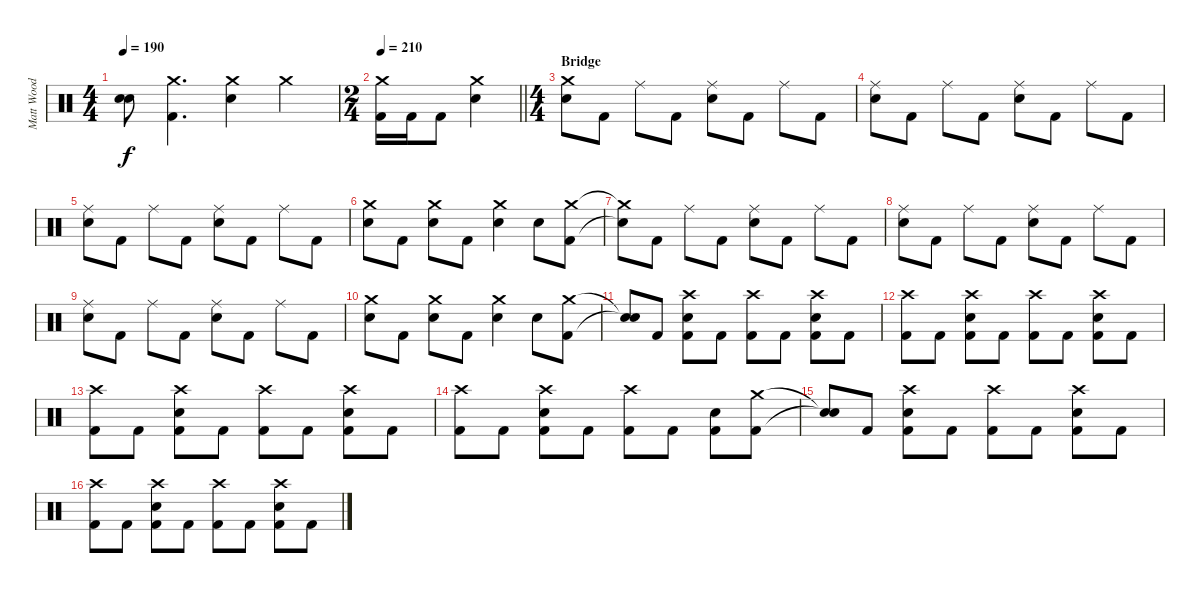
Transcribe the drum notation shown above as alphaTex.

\track ("Matt Wood" "Matt Wood") {instrument percussion}
\staff {score}
\articulation defaults
\ts (4 4)
\tempo 190
\clef neutral
\ks c
("Snare (hit)"{t} "Snare (hit)"{t}).8{dy f} ("Crash medium (hit)" "Kick (hit) 2").4{d} ("Crash medium (hit)" "Snare (hit) 2").4 "Crash medium (hit)".4 |
\ts (2 4)
\tempo 210
\barLineRight lightlight
("Crash medium (hit)" "Kick (hit) 2").16 "Kick (hit) 2".16 "Kick (hit) 2".8 ("Crash medium (hit)" "Snare (hit) 2").4 |
\ts (4 4)
\section ("" "Bridge")
("Crash medium (hit)" "Snare (hit) 2").8 "Kick (hit) 2".8 "Ride (middle)".8 "Kick (hit) 2".8 ("Ride (middle)" "Snare (hit) 2").8 "Kick (hit) 2".8 "Ride (middle)".8 "Kick (hit) 2".8 |
("Ride (middle)" "Snare (hit) 2").8 "Kick (hit) 2".8 "Ride (middle)".8 "Kick (hit) 2".8 ("Ride (middle)" "Snare (hit) 2").8 "Kick (hit) 2".8 "Ride (middle)".8 "Kick (hit) 2".8 |
("Ride (middle)" "Snare (hit) 2").8 "Kick (hit) 2".8 "Ride (middle)".8 "Kick (hit) 2".8 ("Ride (middle)" "Snare (hit) 2").8 "Kick (hit) 2".8 "Ride (middle)".8 "Kick (hit) 2".8 |
("Crash medium (hit)" "Snare (hit) 2").8 "Kick (hit) 2".8 ("Crash medium (hit)" "Snare (hit) 2").8 "Kick (hit) 2".8 ("Crash medium (hit)" "Snare (hit) 2").4 "Snare (hit) 2".8 ("Crash medium (hit)" "Kick (hit) 2").8 |
("Crash medium (hit)"{t} "Snare (hit)"{t}).8 "Kick (hit) 2".8 "Ride (middle)".8 "Kick (hit) 2".8 ("Ride (middle)" "Snare (hit) 2").8 "Kick (hit) 2".8 "Ride (middle)".8 "Kick (hit) 2".8 |
("Ride (middle)" "Snare (hit) 2").8 "Kick (hit) 2".8 "Ride (middle)".8 "Kick (hit) 2".8 ("Ride (middle)" "Snare (hit) 2").8 "Kick (hit) 2".8 "Ride (middle)".8 "Kick (hit) 2".8 |
("Ride (middle)" "Snare (hit) 2").8 "Kick (hit) 2".8 "Ride (middle)".8 "Kick (hit) 2".8 ("Ride (middle)" "Snare (hit) 2").8 "Kick (hit) 2".8 "Ride (middle)".8 "Kick (hit) 2".8 |
("Crash medium (hit)" "Snare (hit) 2").8 "Kick (hit) 2".8 ("Crash medium (hit)" "Snare (hit) 2").8 "Kick (hit) 2".8 ("Crash medium (hit)" "Snare (hit) 2").4 "Snare (hit) 2".8 ("Crash medium (hit)" "Kick (hit) 2").8 |
("Snare (hit)"{t} "Snare (hit)"{t}).8 "Kick (hit) 2".8 ("Crash high (hit)" "Snare (hit) 2" "Kick (hit) 2").8 "Kick (hit) 2".8 ("Crash high (hit)" "Kick (hit) 2").8 "Kick (hit) 2".8 ("Crash high (hit)" "Snare (hit) 2" "Kick (hit) 2").8 "Kick (hit) 2".8 |
("Crash high (hit)" "Kick (hit) 2").8 "Kick (hit) 2".8 ("Crash high (hit)" "Snare (hit) 2" "Kick (hit) 2").8 "Kick (hit) 2".8 ("Crash high (hit)" "Kick (hit) 2").8 "Kick (hit) 2".8 ("Crash high (hit)" "Snare (hit) 2" "Kick (hit) 2").8 "Kick (hit) 2".8 |
("Crash high (hit)" "Kick (hit) 2").8 "Kick (hit) 2".8 ("Crash high (hit)" "Snare (hit) 2" "Kick (hit) 2").8 "Kick (hit) 2".8 ("Crash high (hit)" "Kick (hit) 2").8 "Kick (hit) 2".8 ("Crash high (hit)" "Snare (hit) 2" "Kick (hit) 2").8 "Kick (hit) 2".8 |
("Crash high (hit)" "Kick (hit) 2").8 "Kick (hit) 2".8 ("Crash high (hit)" "Snare (hit) 2" "Kick (hit) 2").8 "Kick (hit) 2".8 ("Crash high (hit)" "Kick (hit) 2").8 "Kick (hit) 2".8 ("Snare (hit) 2" "Kick (hit) 2").8 ("Crash medium (hit)" "Kick (hit) 2").8 |
("Snare (hit)"{t} "Snare (hit)"{t}).8 "Kick (hit) 2".8 ("Crash high (hit)" "Snare (hit) 2" "Kick (hit) 2").8 "Kick (hit) 2".8 ("Crash high (hit)" "Kick (hit) 2").8 "Kick (hit) 2".8 ("Crash high (hit)" "Snare (hit) 2" "Kick (hit) 2").8 "Kick (hit) 2".8 |
("Crash high (hit)" "Kick (hit) 2").8 "Kick (hit) 2".8 ("Crash high (hit)" "Snare (hit) 2" "Kick (hit) 2").8 "Kick (hit) 2".8 ("Crash high (hit)" "Kick (hit) 2").8 "Kick (hit) 2".8 ("Crash high (hit)" "Snare (hit) 2" "Kick (hit) 2").8 "Kick (hit) 2".8
